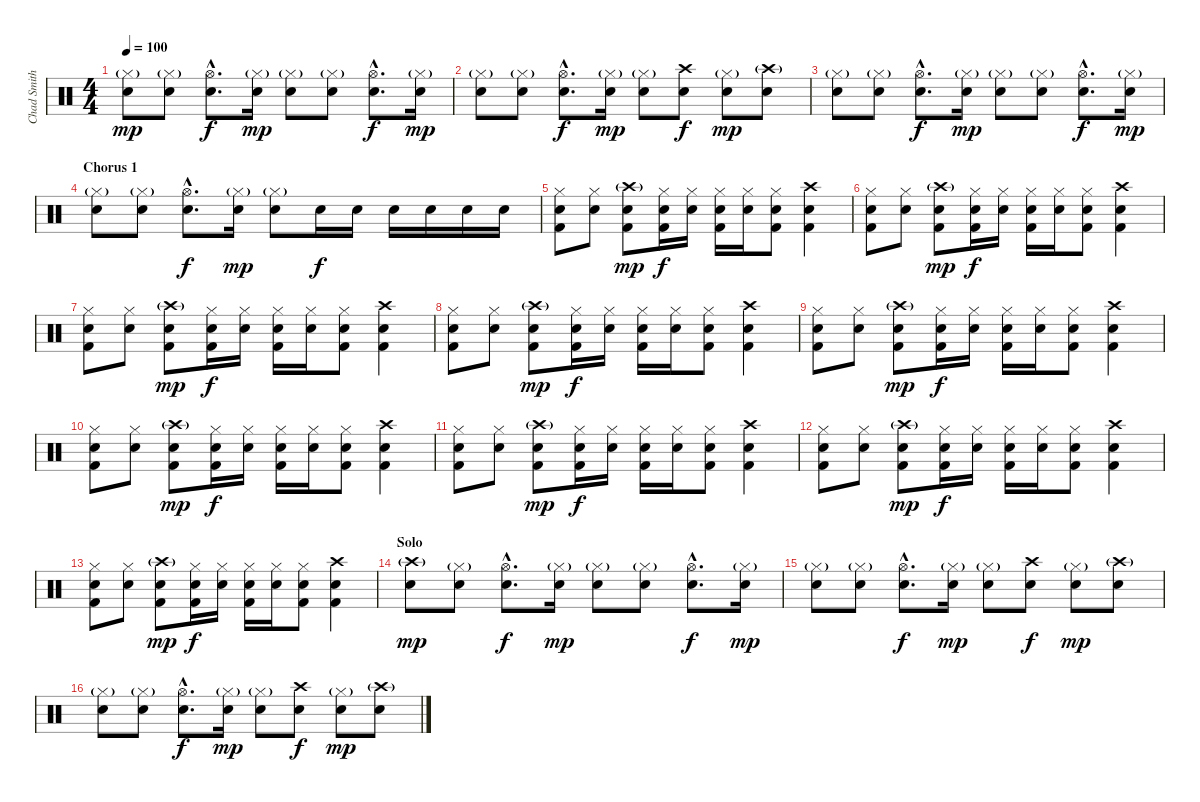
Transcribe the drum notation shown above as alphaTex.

\track ("Chad Smith - Drums" "Chad Smith") {instrument percussion}
\staff {score}
\articulation defaults
\ts (4 4)
\tempo 100
\clef neutral
\ks c
("Hi-Hat (closed)"{g} "Snare (hit) 2").8{dy mp} ("Hi-Hat (closed)"{g} "Snare (hit) 2").8 ("Hi-Hat (open)"{hac} "Snare (hit) 2"{hac}).8{d dy f} ("Hi-Hat (closed)"{g} "Snare (hit) 2").16{dy mp} ("Hi-Hat (closed)"{g} "Snare (hit) 2").8 ("Hi-Hat (closed)"{g} "Snare (hit) 2").8 ("Hi-Hat (open)"{hac} "Snare (hit) 2"{hac}).8{d dy f} ("Hi-Hat (closed)"{g} "Snare (hit) 2").16{dy mp} |
("Hi-Hat (closed)"{g} "Snare (hit) 2").8 ("Hi-Hat (closed)"{g} "Snare (hit) 2").8 ("Hi-Hat (open)"{hac} "Snare (hit) 2"{hac}).8{d dy f} ("Hi-Hat (closed)"{g} "Snare (hit) 2").16{dy mp} ("Hi-Hat (closed)"{g} "Snare (hit) 2").8 ("Crash high (hit)" "Snare (hit) 2").8{dy f} ("Hi-Hat (closed)"{g} "Snare (hit) 2").8{dy mp} ("Crash high (hit)"{g} "Snare (hit) 2").8 |
("Hi-Hat (closed)"{g} "Snare (hit) 2").8 ("Hi-Hat (closed)"{g} "Snare (hit) 2").8 ("Hi-Hat (open)"{hac} "Snare (hit) 2"{hac}).8{d dy f} ("Hi-Hat (closed)"{g} "Snare (hit) 2").16{dy mp} ("Hi-Hat (closed)"{g} "Snare (hit) 2").8 ("Hi-Hat (closed)"{g} "Snare (hit) 2").8 ("Hi-Hat (open)"{hac} "Snare (hit) 2"{hac}).8{d dy f} ("Hi-Hat (closed)"{g} "Snare (hit) 2").16{dy mp} |
\section ("" "Chorus 1")
("Hi-Hat (closed)"{g} "Snare (hit) 2").8 ("Hi-Hat (closed)"{g} "Snare (hit) 2").8 ("Hi-Hat (open)"{hac} "Snare (hit) 2"{hac}).8{d dy f} ("Hi-Hat (closed)"{g} "Snare (hit) 2").16{dy mp} ("Hi-Hat (closed)"{g} "Snare (hit) 2").8 "Electric Snare (hit)".16{dy f} "Electric Snare (hit)".16 "Electric Snare (hit)".16 "Electric Snare (hit)".16 "Electric Snare (hit)".16 "Electric Snare (hit)".16 |
("Hi-Hat (closed)" "Electric Snare (hit)" "Kick (hit) 2").8 ("Hi-Hat (closed)" "Electric Snare (hit)").8 ("Crash high (hit)"{g} "Electric Snare (hit)" "Kick (hit) 2").8{dy mp} ("Hi-Hat (closed)" "Electric Snare (hit)" "Kick (hit) 2").16{dy f} ("Hi-Hat (closed)" "Electric Snare (hit)").16 ("Hi-Hat (closed)" "Electric Snare (hit)" "Kick (hit) 2").16 ("Hi-Hat (closed)" "Electric Snare (hit)").16 ("Hi-Hat (closed)" "Electric Snare (hit)" "Kick (hit) 2").8 ("Crash high (hit)" "Electric Snare (hit)" "Kick (hit) 2").4 |
("Hi-Hat (closed)" "Electric Snare (hit)" "Kick (hit) 2").8 ("Hi-Hat (closed)" "Electric Snare (hit)").8 ("Crash high (hit)"{g} "Electric Snare (hit)" "Kick (hit) 2").8{dy mp} ("Hi-Hat (closed)" "Electric Snare (hit)" "Kick (hit) 2").16{dy f} ("Hi-Hat (closed)" "Electric Snare (hit)").16 ("Hi-Hat (closed)" "Electric Snare (hit)" "Kick (hit) 2").16 ("Hi-Hat (closed)" "Electric Snare (hit)").16 ("Hi-Hat (closed)" "Electric Snare (hit)" "Kick (hit) 2").8 ("Crash high (hit)" "Electric Snare (hit)" "Kick (hit) 2").4 |
("Hi-Hat (closed)" "Electric Snare (hit)" "Kick (hit) 2").8 ("Hi-Hat (closed)" "Electric Snare (hit)").8 ("Crash high (hit)"{g} "Electric Snare (hit)" "Kick (hit) 2").8{dy mp} ("Hi-Hat (closed)" "Electric Snare (hit)" "Kick (hit) 2").16{dy f} ("Hi-Hat (closed)" "Electric Snare (hit)").16 ("Hi-Hat (closed)" "Electric Snare (hit)" "Kick (hit) 2").16 ("Hi-Hat (closed)" "Electric Snare (hit)").16 ("Hi-Hat (closed)" "Electric Snare (hit)" "Kick (hit) 2").8 ("Crash high (hit)" "Electric Snare (hit)" "Kick (hit) 2").4 |
("Hi-Hat (closed)" "Electric Snare (hit)" "Kick (hit) 2").8 ("Hi-Hat (closed)" "Electric Snare (hit)").8 ("Crash high (hit)"{g} "Electric Snare (hit)" "Kick (hit) 2").8{dy mp} ("Hi-Hat (closed)" "Electric Snare (hit)" "Kick (hit) 2").16{dy f} ("Hi-Hat (closed)" "Electric Snare (hit)").16 ("Hi-Hat (closed)" "Electric Snare (hit)" "Kick (hit) 2").16 ("Hi-Hat (closed)" "Electric Snare (hit)").16 ("Hi-Hat (closed)" "Electric Snare (hit)" "Kick (hit) 2").8 ("Crash high (hit)" "Electric Snare (hit)" "Kick (hit) 2").4 |
("Hi-Hat (closed)" "Electric Snare (hit)" "Kick (hit) 2").8 ("Hi-Hat (closed)" "Electric Snare (hit)").8 ("Crash high (hit)"{g} "Electric Snare (hit)" "Kick (hit) 2").8{dy mp} ("Hi-Hat (closed)" "Electric Snare (hit)" "Kick (hit) 2").16{dy f} ("Hi-Hat (closed)" "Electric Snare (hit)").16 ("Hi-Hat (closed)" "Electric Snare (hit)" "Kick (hit) 2").16 ("Hi-Hat (closed)" "Electric Snare (hit)").16 ("Hi-Hat (closed)" "Electric Snare (hit)" "Kick (hit) 2").8 ("Crash high (hit)" "Electric Snare (hit)" "Kick (hit) 2").4 |
("Hi-Hat (closed)" "Electric Snare (hit)" "Kick (hit) 2").8 ("Hi-Hat (closed)" "Electric Snare (hit)").8 ("Crash high (hit)"{g} "Electric Snare (hit)" "Kick (hit) 2").8{dy mp} ("Hi-Hat (closed)" "Electric Snare (hit)" "Kick (hit) 2").16{dy f} ("Hi-Hat (closed)" "Electric Snare (hit)").16 ("Hi-Hat (closed)" "Electric Snare (hit)" "Kick (hit) 2").16 ("Hi-Hat (closed)" "Electric Snare (hit)").16 ("Hi-Hat (closed)" "Electric Snare (hit)" "Kick (hit) 2").8 ("Crash high (hit)" "Electric Snare (hit)" "Kick (hit) 2").4 |
("Hi-Hat (closed)" "Electric Snare (hit)" "Kick (hit) 2").8 ("Hi-Hat (closed)" "Electric Snare (hit)").8 ("Crash high (hit)"{g} "Electric Snare (hit)" "Kick (hit) 2").8{dy mp} ("Hi-Hat (closed)" "Electric Snare (hit)" "Kick (hit) 2").16{dy f} ("Hi-Hat (closed)" "Electric Snare (hit)").16 ("Hi-Hat (closed)" "Electric Snare (hit)" "Kick (hit) 2").16 ("Hi-Hat (closed)" "Electric Snare (hit)").16 ("Hi-Hat (closed)" "Electric Snare (hit)" "Kick (hit) 2").8 ("Crash high (hit)" "Electric Snare (hit)" "Kick (hit) 2").4 |
("Hi-Hat (closed)" "Electric Snare (hit)" "Kick (hit) 2").8 ("Hi-Hat (closed)" "Electric Snare (hit)").8 ("Crash high (hit)"{g} "Electric Snare (hit)" "Kick (hit) 2").8{dy mp} ("Hi-Hat (closed)" "Electric Snare (hit)" "Kick (hit) 2").16{dy f} ("Hi-Hat (closed)" "Electric Snare (hit)").16 ("Hi-Hat (closed)" "Electric Snare (hit)" "Kick (hit) 2").16 ("Hi-Hat (closed)" "Electric Snare (hit)").16 ("Hi-Hat (closed)" "Electric Snare (hit)" "Kick (hit) 2").8 ("Crash high (hit)" "Electric Snare (hit)" "Kick (hit) 2").4 |
("Hi-Hat (closed)" "Electric Snare (hit)" "Kick (hit) 2").8 ("Hi-Hat (closed)" "Electric Snare (hit)").8 ("Crash high (hit)"{g} "Electric Snare (hit)" "Kick (hit) 2").8{dy mp} ("Hi-Hat (closed)" "Electric Snare (hit)" "Kick (hit) 2").16{dy f} ("Hi-Hat (closed)" "Electric Snare (hit)").16 ("Hi-Hat (closed)" "Electric Snare (hit)" "Kick (hit) 2").16 ("Hi-Hat (closed)" "Electric Snare (hit)").16 ("Hi-Hat (closed)" "Electric Snare (hit)" "Kick (hit) 2").8 ("Crash high (hit)" "Electric Snare (hit)" "Kick (hit) 2").4 |
\section ("" "Solo")
("Crash high (hit)"{g} "Snare (hit) 2").8{dy mp} ("Hi-Hat (closed)"{g} "Snare (hit) 2").8 ("Hi-Hat (open)"{hac} "Snare (hit) 2"{hac}).8{d dy f} ("Hi-Hat (closed)"{g} "Snare (hit) 2").16{dy mp} ("Hi-Hat (closed)"{g} "Snare (hit) 2").8 ("Hi-Hat (closed)"{g} "Snare (hit) 2").8 ("Hi-Hat (open)"{hac} "Snare (hit) 2"{hac}).8{d dy f} ("Hi-Hat (closed)"{g} "Snare (hit) 2").16{dy mp} |
("Hi-Hat (closed)"{g} "Snare (hit) 2").8 ("Hi-Hat (closed)"{g} "Snare (hit) 2").8 ("Hi-Hat (open)"{hac} "Snare (hit) 2"{hac}).8{d dy f} ("Hi-Hat (closed)"{g} "Snare (hit) 2").16{dy mp} ("Hi-Hat (closed)"{g} "Snare (hit) 2").8 ("Crash high (hit)" "Snare (hit) 2").8{dy f} ("Hi-Hat (closed)"{g} "Snare (hit) 2").8{dy mp} ("Crash high (hit)"{g} "Snare (hit) 2").8 |
("Hi-Hat (closed)"{g} "Snare (hit) 2").8 ("Hi-Hat (closed)"{g} "Snare (hit) 2").8 ("Hi-Hat (open)"{hac} "Snare (hit) 2"{hac}).8{d dy f} ("Hi-Hat (closed)"{g} "Snare (hit) 2").16{dy mp} ("Hi-Hat (closed)"{g} "Snare (hit) 2").8 ("Crash high (hit)" "Snare (hit) 2").8{dy f} ("Hi-Hat (closed)"{g} "Snare (hit) 2").8{dy mp} ("Crash high (hit)"{g} "Snare (hit) 2").8
